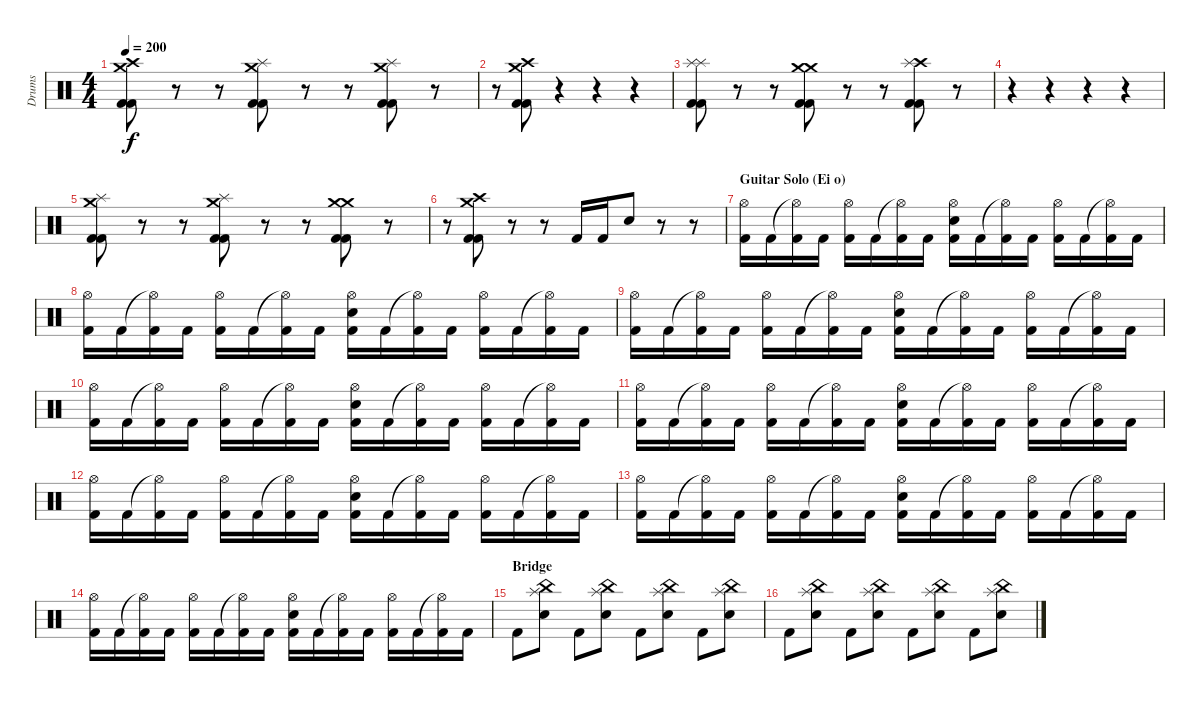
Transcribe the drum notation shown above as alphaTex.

\track ("Drums" "Drums") {instrument percussion}
\staff {score}
\articulation defaults
\ts (4 4)
\tempo 200
\clef neutral
\ks c
("Crash high (hit)" "Crash medium (hit)" "Kick (hit) 2" "Kick (hit) 2").8{dy f} r.8 r.8 ("Crash medium (hit)" "Splash (hit)" "Kick (hit) 2" "Kick (hit) 2").8 r.8 r.8 ("Crash medium (hit)" "Splash (hit)" "Kick (hit) 2" "Kick (hit) 2").8 r.8 |
r.8 ("Crash high (hit)" "Crash medium (hit)" "Kick (hit) 2" "Kick (hit) 2").8 r.4 r.4 r.4 |
("Splash (hit)" "Splash (hit)" "Kick (hit) 2" "Kick (hit) 2").8 r.8 r.8 ("Crash medium (hit)" "Crash medium (hit)" "Kick (hit) 2" "Kick (hit) 2").8 r.8 r.8 ("Crash high (hit)" "Splash (hit)" "Kick (hit) 2" "Kick (hit) 2").8 r.8 |
r.4 r.4 r.4 r.4 |
("Crash medium (hit)" "Splash (hit)" "Kick (hit) 2" "Kick (hit) 2").8 r.8 r.8 ("Crash medium (hit)" "Splash (hit)" "Kick (hit) 2" "Kick (hit) 2").8 r.8 r.8 ("Crash medium (hit)" "Crash medium (hit)" "Kick (hit) 2" "Kick (hit) 2").8 r.8 |
r.8 ("Crash medium (hit)" "Crash high (hit)" "Kick (hit) 2" "Kick (hit) 2").8 r.8 r.8 "Kick (hit) 2".16 "Kick (hit) 2".16 "Snare (hit) 2".8 r.8 r.8 |
\section ("" "Guitar Solo (Ei o)")
("Hi-Hat (open)" "Kick (hit) 2").16 "Kick (hit) 2".16 ("Hi-Hat (open)"{t} "Kick (hit) 2").16 "Kick (hit) 2".16 ("Hi-Hat (open)" "Kick (hit) 2").16 "Kick (hit) 2".16 ("Hi-Hat (open)"{t} "Kick (hit) 2").16 "Kick (hit) 2".16 ("Hi-Hat (open)" "Snare (hit) 2" "Kick (hit) 2").16 "Kick (hit) 2".16 ("Hi-Hat (open)"{t} "Kick (hit) 2").16 "Kick (hit) 2".16 ("Hi-Hat (open)" "Kick (hit) 2").16 "Kick (hit) 2".16 ("Hi-Hat (open)"{t} "Kick (hit) 2").16 "Kick (hit) 2".16 |
("Hi-Hat (open)" "Kick (hit) 2").16 "Kick (hit) 2".16 ("Hi-Hat (open)"{t} "Kick (hit) 2").16 "Kick (hit) 2".16 ("Hi-Hat (open)" "Kick (hit) 2").16 "Kick (hit) 2".16 ("Hi-Hat (open)"{t} "Kick (hit) 2").16 "Kick (hit) 2".16 ("Hi-Hat (open)" "Snare (hit) 2" "Kick (hit) 2").16 "Kick (hit) 2".16 ("Hi-Hat (open)"{t} "Kick (hit) 2").16 "Kick (hit) 2".16 ("Hi-Hat (open)" "Kick (hit) 2").16 "Kick (hit) 2".16 ("Hi-Hat (open)"{t} "Kick (hit) 2").16 "Kick (hit) 2".16 |
("Hi-Hat (open)" "Kick (hit) 2").16 "Kick (hit) 2".16 ("Hi-Hat (open)"{t} "Kick (hit) 2").16 "Kick (hit) 2".16 ("Hi-Hat (open)" "Kick (hit) 2").16 "Kick (hit) 2".16 ("Hi-Hat (open)"{t} "Kick (hit) 2").16 "Kick (hit) 2".16 ("Hi-Hat (open)" "Snare (hit) 2" "Kick (hit) 2").16 "Kick (hit) 2".16 ("Hi-Hat (open)"{t} "Kick (hit) 2").16 "Kick (hit) 2".16 ("Hi-Hat (open)" "Kick (hit) 2").16 "Kick (hit) 2".16 ("Hi-Hat (open)"{t} "Kick (hit) 2").16 "Kick (hit) 2".16 |
("Hi-Hat (open)" "Kick (hit) 2").16 "Kick (hit) 2".16 ("Hi-Hat (open)"{t} "Kick (hit) 2").16 "Kick (hit) 2".16 ("Hi-Hat (open)" "Kick (hit) 2").16 "Kick (hit) 2".16 ("Hi-Hat (open)"{t} "Kick (hit) 2").16 "Kick (hit) 2".16 ("Hi-Hat (open)" "Snare (hit) 2" "Kick (hit) 2").16 "Kick (hit) 2".16 ("Hi-Hat (open)"{t} "Kick (hit) 2").16 "Kick (hit) 2".16 ("Hi-Hat (open)" "Kick (hit) 2").16 "Kick (hit) 2".16 ("Hi-Hat (open)"{t} "Kick (hit) 2").16 "Kick (hit) 2".16 |
("Hi-Hat (open)" "Kick (hit) 2").16 "Kick (hit) 2".16 ("Hi-Hat (open)"{t} "Kick (hit) 2").16 "Kick (hit) 2".16 ("Hi-Hat (open)" "Kick (hit) 2").16 "Kick (hit) 2".16 ("Hi-Hat (open)"{t} "Kick (hit) 2").16 "Kick (hit) 2".16 ("Hi-Hat (open)" "Snare (hit) 2" "Kick (hit) 2").16 "Kick (hit) 2".16 ("Hi-Hat (open)"{t} "Kick (hit) 2").16 "Kick (hit) 2".16 ("Hi-Hat (open)" "Kick (hit) 2").16 "Kick (hit) 2".16 ("Hi-Hat (open)"{t} "Kick (hit) 2").16 "Kick (hit) 2".16 |
("Hi-Hat (open)" "Kick (hit) 2").16 "Kick (hit) 2".16 ("Hi-Hat (open)"{t} "Kick (hit) 2").16 "Kick (hit) 2".16 ("Hi-Hat (open)" "Kick (hit) 2").16 "Kick (hit) 2".16 ("Hi-Hat (open)"{t} "Kick (hit) 2").16 "Kick (hit) 2".16 ("Hi-Hat (open)" "Snare (hit) 2" "Kick (hit) 2").16 "Kick (hit) 2".16 ("Hi-Hat (open)"{t} "Kick (hit) 2").16 "Kick (hit) 2".16 ("Hi-Hat (open)" "Kick (hit) 2").16 "Kick (hit) 2".16 ("Hi-Hat (open)"{t} "Kick (hit) 2").16 "Kick (hit) 2".16 |
("Hi-Hat (open)" "Kick (hit) 2").16 "Kick (hit) 2".16 ("Hi-Hat (open)"{t} "Kick (hit) 2").16 "Kick (hit) 2".16 ("Hi-Hat (open)" "Kick (hit) 2").16 "Kick (hit) 2".16 ("Hi-Hat (open)"{t} "Kick (hit) 2").16 "Kick (hit) 2".16 ("Hi-Hat (open)" "Snare (hit) 2" "Kick (hit) 2").16 "Kick (hit) 2".16 ("Hi-Hat (open)"{t} "Kick (hit) 2").16 "Kick (hit) 2".16 ("Hi-Hat (open)" "Kick (hit) 2").16 "Kick (hit) 2".16 ("Hi-Hat (open)"{t} "Kick (hit) 2").16 "Kick (hit) 2".16 |
("Hi-Hat (open)" "Kick (hit) 2").16 "Kick (hit) 2".16 ("Hi-Hat (open)"{t} "Kick (hit) 2").16 "Kick (hit) 2".16 ("Hi-Hat (open)" "Kick (hit) 2").16 "Kick (hit) 2".16 ("Hi-Hat (open)"{t} "Kick (hit) 2").16 "Kick (hit) 2".16 ("Hi-Hat (open)" "Snare (hit) 2" "Kick (hit) 2").16 "Kick (hit) 2".16 ("Hi-Hat (open)"{t} "Kick (hit) 2").16 "Kick (hit) 2".16 ("Hi-Hat (open)" "Kick (hit) 2").16 "Kick (hit) 2".16 ("Hi-Hat (open)"{t} "Kick (hit) 2").16 "Kick (hit) 2".16 |
\section ("" "Bridge")
"Kick (hit) 2".8 ("China (hit)" "Splash (hit)" "Snare (hit) 2").8 "Kick (hit) 2".8 ("China (hit)" "Splash (hit)" "Snare (hit) 2").8 "Kick (hit) 2".8 ("China (hit)" "Splash (hit)" "Snare (hit) 2").8 "Kick (hit) 2".8 ("China (hit)" "Splash (hit)" "Snare (hit) 2").8 |
"Kick (hit) 2".8 ("China (hit)" "Splash (hit)" "Snare (hit) 2").8 "Kick (hit) 2".8 ("China (hit)" "Splash (hit)" "Snare (hit) 2").8 "Kick (hit) 2".8 ("China (hit)" "Splash (hit)" "Snare (hit) 2").8 "Kick (hit) 2".8 ("China (hit)" "Splash (hit)" "Snare (hit) 2").8
